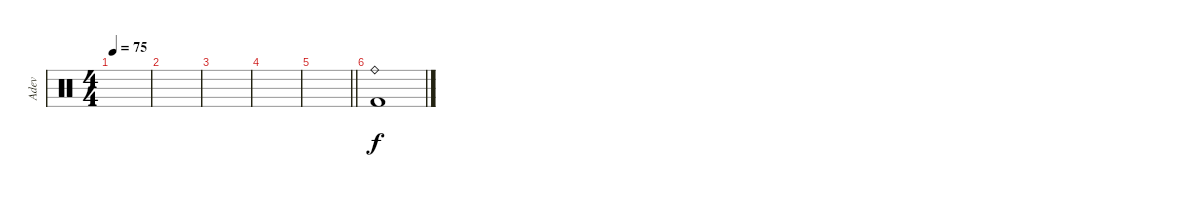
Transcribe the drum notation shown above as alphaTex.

\track ("Adev" "Adev") {instrument percussion}
\staff {score}
\articulation defaults
\ts (4 4)
\tempo 75
\clef neutral
\ks c
|
|
|
|
\barLineRight lightlight
|
("Ride (bell)" "Kick (hit) 2").1
